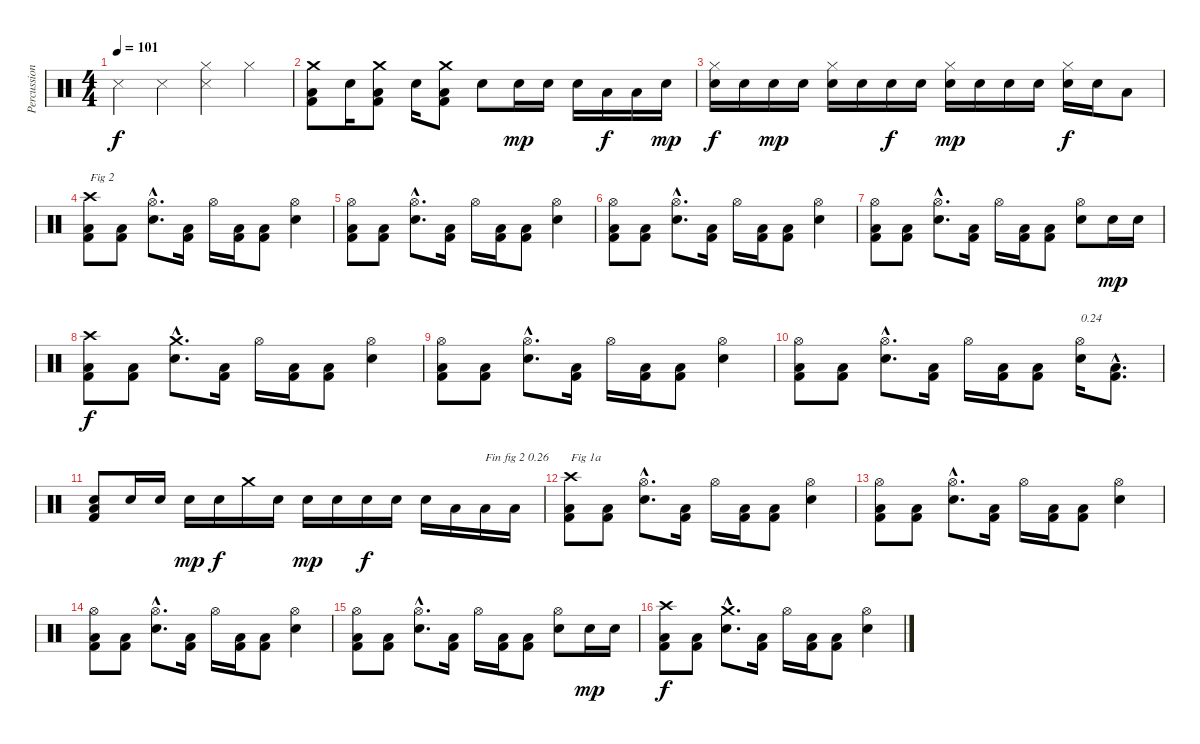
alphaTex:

\track ("Percussion" "Percussion") {instrument percussion}
\staff {score}
\articulation defaults
\ts (4 4)
\tempo 101
\clef neutral
\ks c "Metronome (hit)".4{dy f} "Metronome (hit)".4
("Metronome (hit)" "Hi-Hat (closed)").4 "Hi-Hat (closed)".4 |
("Kick (hit) 2" "Low Floor Tom (hit)" "Crash medium (hit)").8 "Snare (hit) 2".16 ("Kick (hit) 2" "Low Floor Tom (hit)" "Crash medium (hit)").8 "Snare (hit) 2".16 ("Kick (hit) 2" "Low Floor Tom (hit)" "Crash medium (hit)").8 "Snare (hit) 2".8 "Snare (hit) 2".16{dy mp} "Snare (hit) 2".16 "Snare (hit) 2".16 "Low Tom (hit)".16{dy f} "Low Tom (hit)".16 "Snare (hit) 2".16{dy mp} |
("Snare (hit) 2" "Hi-Hat (closed)").16{dy f} "Snare (hit) 2".16 "Snare (hit) 2".16{dy mp} "Snare (hit) 2".16 ("Snare (hit) 2" "Hi-Hat (closed)").16 "Snare (hit) 2".16 "Snare (hit) 2".16{dy f} "Snare (hit) 2".16 ("Snare (hit) 2" "Hi-Hat (closed)").16{dy mp} "Snare (hit) 2".16 "Snare (hit) 2".16 "Snare (hit) 2".16 ("Snare (hit) 2" "Hi-Hat (closed)").16{dy f} "Snare (hit) 2".16 "Low Tom (hit)".8 |
("Kick (hit) 2" "Low Floor Tom (hit)" "Crash high (hit)").8{txt "Fig 2"} ("Kick (hit) 2" "Low Floor Tom (hit)").8 ("Snare (hit) 2"{hac} "Hi-Hat (open)"{hac}).8{d} ("Kick (hit) 2" "Low Floor Tom (hit)").16 "Hi-Hat (open)".16 ("Kick (hit) 2" "Low Floor Tom (hit)").16 ("Kick (hit) 2" "Low Floor Tom (hit)").8 ("Snare (hit) 2" "Hi-Hat (open)").4 |
("Kick (hit) 2" "Low Floor Tom (hit)" "Hi-Hat (open)").8 ("Kick (hit) 2" "Low Floor Tom (hit)").8 ("Snare (hit) 2"{hac} "Hi-Hat (open)"{hac}).8{d} ("Kick (hit) 2" "Low Floor Tom (hit)").16 "Hi-Hat (open)".16 ("Kick (hit) 2" "Low Floor Tom (hit)").16 ("Kick (hit) 2" "Low Floor Tom (hit)").8 ("Snare (hit) 2" "Hi-Hat (open)").4 |
("Kick (hit) 2" "Low Floor Tom (hit)" "Hi-Hat (open)").8 ("Kick (hit) 2" "Low Floor Tom (hit)").8 ("Snare (hit) 2"{hac} "Hi-Hat (open)"{hac}).8{d} ("Kick (hit) 2" "Low Floor Tom (hit)").16 "Hi-Hat (open)".16 ("Kick (hit) 2" "Low Floor Tom (hit)").16 ("Kick (hit) 2" "Low Floor Tom (hit)").8 ("Snare (hit) 2" "Hi-Hat (open)").4 |
("Kick (hit) 2" "Low Floor Tom (hit)" "Hi-Hat (open)").8 ("Kick (hit) 2" "Low Floor Tom (hit)").8 ("Snare (hit) 2"{hac} "Hi-Hat (open)"{hac}).8{d} ("Kick (hit) 2" "Low Floor Tom (hit)").16 "Hi-Hat (open)".16 ("Kick (hit) 2" "Low Floor Tom (hit)").16 ("Kick (hit) 2" "Low Floor Tom (hit)").8 ("Snare (hit) 2" "Hi-Hat (open)").8 "Snare (hit) 2".16{dy mp} "Snare (hit) 2".16 |
("Kick (hit) 2" "Low Floor Tom (hit)" "Crash high (hit)").8{dy f} ("Kick (hit) 2" "Low Floor Tom (hit)").8 ("Snare (hit) 2"{hac} "Crash medium (hit)"{hac}).8{d} ("Kick (hit) 2" "Low Floor Tom (hit)").16 "Hi-Hat (open)".16 ("Kick (hit) 2" "Low Floor Tom (hit)").16 ("Kick (hit) 2" "Low Floor Tom (hit)").8 ("Snare (hit) 2" "Hi-Hat (open)").4 |
("Kick (hit) 2" "Low Floor Tom (hit)" "Hi-Hat (open)").8 ("Kick (hit) 2" "Low Floor Tom (hit)").8 ("Snare (hit) 2"{hac} "Hi-Hat (open)"{hac}).8{d} ("Kick (hit) 2" "Low Floor Tom (hit)").16 "Hi-Hat (open)".16 ("Kick (hit) 2" "Low Floor Tom (hit)").16 ("Kick (hit) 2" "Low Floor Tom (hit)").8 ("Snare (hit) 2" "Hi-Hat (open)").4 |
("Kick (hit) 2" "Low Floor Tom (hit)" "Hi-Hat (open)").8 ("Kick (hit) 2" "Low Floor Tom (hit)").8 ("Snare (hit) 2"{hac} "Hi-Hat (open)"{hac}).8{d} ("Kick (hit) 2" "Low Floor Tom (hit)").16 "Hi-Hat (open)".16 ("Kick (hit) 2" "Low Floor Tom (hit)").16 ("Kick (hit) 2" "Low Floor Tom (hit)").8 ("Snare (hit) 2" "Hi-Hat (open)").16{txt "0.24"} ("Kick (hit) 2"{hac} "Low Floor Tom (hit)"{hac}).8{d} |
("Kick (hit) 2" "Low Floor Tom (hit)" "Snare (hit) 2").8 "Snare (hit) 2".16 "Snare (hit) 2".16 "Snare (hit) 2".16{dy mp} "Snare (hit) 2".16{dy f} "Crash medium (hit)".16 "Snare (hit) 2".16 "Snare (hit) 2".16{dy mp} "Snare (hit) 2".16 "Snare (hit) 2".16{dy f} "Snare (hit) 2".16 "Snare (hit) 2".16 "Low Tom (hit)".16 "Low Tom (hit)".16{txt "Fin fig 2 0.26"} "Low Tom (hit)".16 |
("Kick (hit) 2" "Low Floor Tom (hit)" "Crash high (hit)").8{txt "Fig 1a"} ("Kick (hit) 2" "Low Floor Tom (hit)").8 ("Snare (hit) 2"{hac} "Hi-Hat (open)"{hac}).8{d} ("Kick (hit) 2" "Low Floor Tom (hit)").16 "Hi-Hat (open)".16 ("Kick (hit) 2" "Low Floor Tom (hit)").16 ("Kick (hit) 2" "Low Floor Tom (hit)").8 ("Snare (hit) 2" "Hi-Hat (open)").4 |
("Kick (hit) 2" "Low Floor Tom (hit)" "Hi-Hat (open)").8 ("Kick (hit) 2" "Low Floor Tom (hit)").8 ("Snare (hit) 2"{hac} "Hi-Hat (open)"{hac}).8{d} ("Kick (hit) 2" "Low Floor Tom (hit)").16 "Hi-Hat (open)".16 ("Kick (hit) 2" "Low Floor Tom (hit)").16 ("Kick (hit) 2" "Low Floor Tom (hit)").8 ("Snare (hit) 2" "Hi-Hat (open)").4 |
("Kick (hit) 2" "Low Floor Tom (hit)" "Hi-Hat (open)").8 ("Kick (hit) 2" "Low Floor Tom (hit)").8 ("Snare (hit) 2"{hac} "Hi-Hat (open)"{hac}).8{d} ("Kick (hit) 2" "Low Floor Tom (hit)").16 "Hi-Hat (open)".16 ("Kick (hit) 2" "Low Floor Tom (hit)").16 ("Kick (hit) 2" "Low Floor Tom (hit)").8 ("Snare (hit) 2" "Hi-Hat (open)").4 |
("Kick (hit) 2" "Low Floor Tom (hit)" "Hi-Hat (open)").8 ("Kick (hit) 2" "Low Floor Tom (hit)").8 ("Snare (hit) 2"{hac} "Hi-Hat (open)"{hac}).8{d} ("Kick (hit) 2" "Low Floor Tom (hit)").16 "Hi-Hat (open)".16 ("Kick (hit) 2" "Low Floor Tom (hit)").16 ("Kick (hit) 2" "Low Floor Tom (hit)").8 ("Snare (hit) 2" "Hi-Hat (open)").8 "Snare (hit) 2".16{dy mp} "Snare (hit) 2".16 |
("Kick (hit) 2" "Low Floor Tom (hit)" "Crash high (hit)").8{dy f} ("Kick (hit) 2" "Low Floor Tom (hit)").8 ("Snare (hit) 2"{hac} "Crash medium (hit)"{hac}).8{d} ("Kick (hit) 2" "Low Floor Tom (hit)").16 "Hi-Hat (open)".16 ("Kick (hit) 2" "Low Floor Tom (hit)").16 ("Kick (hit) 2" "Low Floor Tom (hit)").8 ("Snare (hit) 2" "Hi-Hat (open)").4
